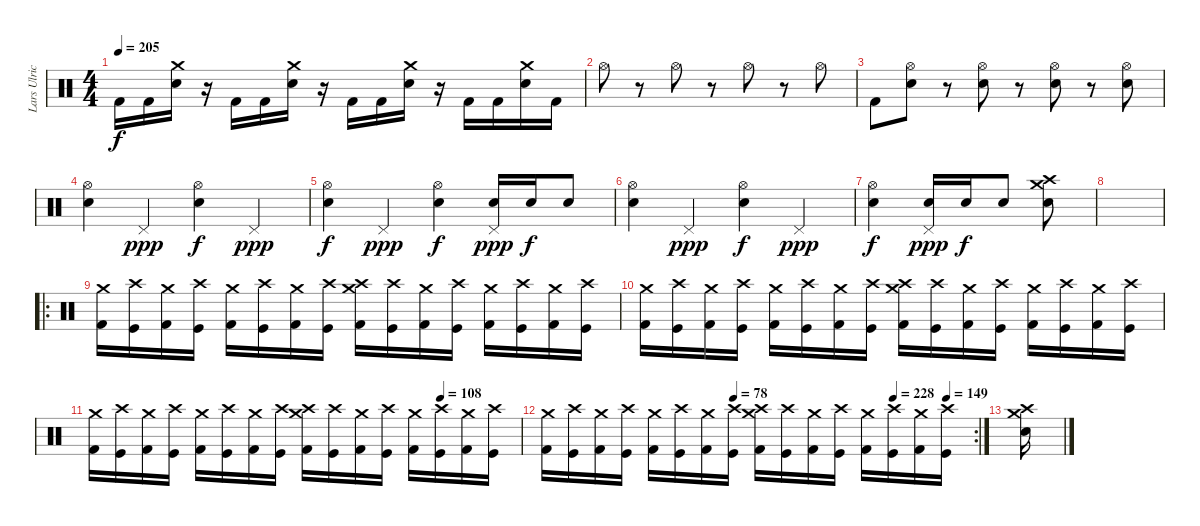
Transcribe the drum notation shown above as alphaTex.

\track ("Lars Ulrich" "Lars Ulric") {instrument percussion}
\staff {score}
\articulation defaults
\ts (4 4)
\tempo 205
\clef neutral
\ks c "Kick (hit) 2".16{dy f} "Kick (hit) 2".16
("Crash medium (hit)" "Electric Snare (hit)").16 r.16 "Kick (hit) 2".16 "Kick (hit) 2".16 ("Crash medium (hit)" "Electric Snare (hit)").16 r.16 "Kick (hit) 2".16 "Kick (hit) 2".16 ("Crash medium (hit)" "Electric Snare (hit)").16 r.16 "Kick (hit) 2".16 "Kick (hit) 2".16 ("Crash medium (hit)" "Electric Snare (hit)").16 "Kick (hit) 2".16 |
"Hi-Hat (open)".8 r.8 "Hi-Hat (open)".8 r.8 "Hi-Hat (open)".8 r.8 "Hi-Hat (open)".8 |
"Kick (hit) 2".8 ("Hi-Hat (open)" "Electric Snare (hit)").8 r.8 ("Hi-Hat (open)" "Electric Snare (hit)").8 r.8 ("Hi-Hat (open)" "Electric Snare (hit)").8 r.8 ("Hi-Hat (open)" "Electric Snare (hit)").8 |
("Hi-Hat (open)" "Electric Snare (hit)").4 "Pedal Hi-Hat (hit)".4{dy ppp} ("Hi-Hat (open)" "Electric Snare (hit)").4{dy f} "Pedal Hi-Hat (hit)".4{dy ppp} |
("Hi-Hat (open)" "Electric Snare (hit)").4{dy f} "Pedal Hi-Hat (hit)".4{dy ppp} ("Hi-Hat (open)" "Electric Snare (hit)").4{dy f} ("Pedal Hi-Hat (hit)" "Electric Snare (hit)").16{dy ppp} "Electric Snare (hit)".16{dy f} "Electric Snare (hit)".8 |
("Hi-Hat (open)" "Electric Snare (hit)").4 "Pedal Hi-Hat (hit)".4{dy ppp} ("Hi-Hat (open)" "Electric Snare (hit)").4{dy f} "Pedal Hi-Hat (hit)".4{dy ppp} |
("Hi-Hat (open)" "Electric Snare (hit)").4{dy f} ("Pedal Hi-Hat (hit)" "Electric Snare (hit)").16{dy ppp} "Electric Snare (hit)".16{dy f} "Electric Snare (hit)".8 ("Crash high (hit)" "Crash medium (hit)" "Electric Snare (hit)").8 |
|
\ro
("Crash medium (hit)" "Kick (hit) 2").16 ("Crash high (hit)" "Kick (hit)").16 ("Crash medium (hit)" "Kick (hit) 2").16 ("Crash high (hit)" "Kick (hit)").16 ("Crash medium (hit)" "Kick (hit) 2").16 ("Crash high (hit)" "Kick (hit)").16 ("Crash medium (hit)" "Kick (hit) 2").16 ("Crash high (hit)" "Kick (hit)").16 ("Crash medium (hit)" "Kick (hit) 2" "Crash high (hit)").16 ("Crash high (hit)" "Kick (hit)").16 ("Crash medium (hit)" "Kick (hit) 2").16 ("Crash high (hit)" "Kick (hit)").16 ("Crash medium (hit)" "Kick (hit) 2").16 ("Crash high (hit)" "Kick (hit)").16 ("Crash medium (hit)" "Kick (hit) 2").16 ("Crash high (hit)" "Kick (hit)").16 |
("Crash medium (hit)" "Kick (hit) 2").16 ("Crash high (hit)" "Kick (hit)").16 ("Crash medium (hit)" "Kick (hit) 2").16 ("Crash high (hit)" "Kick (hit)").16 ("Crash medium (hit)" "Kick (hit) 2").16 ("Crash high (hit)" "Kick (hit)").16 ("Crash medium (hit)" "Kick (hit) 2").16 ("Crash high (hit)" "Kick (hit)").16 ("Crash medium (hit)" "Kick (hit) 2" "Crash high (hit)").16 ("Crash high (hit)" "Kick (hit)").16 ("Crash medium (hit)" "Kick (hit) 2").16 ("Crash high (hit)" "Kick (hit)").16 ("Crash medium (hit)" "Kick (hit) 2").16 ("Crash high (hit)" "Kick (hit)").16 ("Crash medium (hit)" "Kick (hit) 2").16 ("Crash high (hit)" "Kick (hit)").16 |
\tempo (108 0.8125)
("Crash medium (hit)" "Kick (hit) 2").16 ("Crash high (hit)" "Kick (hit)").16 ("Crash medium (hit)" "Kick (hit) 2").16 ("Crash high (hit)" "Kick (hit)").16 ("Crash medium (hit)" "Kick (hit) 2").16 ("Crash high (hit)" "Kick (hit)").16 ("Crash medium (hit)" "Kick (hit) 2").16 ("Crash high (hit)" "Kick (hit)").16 ("Crash medium (hit)" "Kick (hit) 2" "Crash high (hit)").16 ("Crash high (hit)" "Kick (hit)").16 ("Crash medium (hit)" "Kick (hit) 2").16 ("Crash high (hit)" "Kick (hit)").16 ("Crash medium (hit)" "Kick (hit) 2").16 ("Crash high (hit)" "Kick (hit)").16 ("Crash medium (hit)" "Kick (hit) 2").16 ("Crash high (hit)" "Kick (hit)").16 |
\rc 2
\tempo (78 0.4375)
\tempo (228 0.8125)
\tempo (149 0.9375)
("Crash medium (hit)" "Kick (hit) 2").16 ("Crash high (hit)" "Kick (hit)").16 ("Crash medium (hit)" "Kick (hit) 2").16 ("Crash high (hit)" "Kick (hit)").16 ("Crash medium (hit)" "Kick (hit) 2").16 ("Crash high (hit)" "Kick (hit)").16 ("Crash medium (hit)" "Kick (hit) 2").16 ("Crash high (hit)" "Kick (hit)").16 ("Crash medium (hit)" "Kick (hit) 2" "Crash high (hit)").16 ("Crash high (hit)" "Kick (hit)").16 ("Crash medium (hit)" "Kick (hit) 2").16 ("Crash high (hit)" "Kick (hit)").16 ("Crash medium (hit)" "Kick (hit) 2").16 ("Crash high (hit)" "Kick (hit)").16 ("Crash medium (hit)" "Kick (hit) 2").16 ("Crash high (hit)" "Kick (hit)").16 |
("Crash high (hit)" "Crash medium (hit)" "Electric Snare (hit)").16
